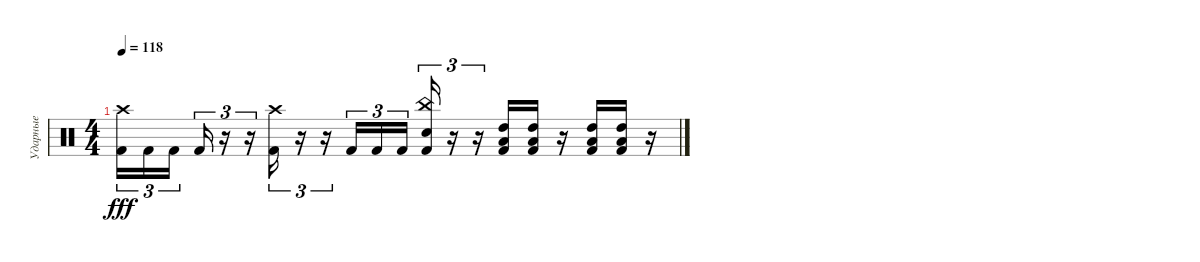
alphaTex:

\track ("Ударные" "Ударные") {instrument percussion}
\staff {score}
\articulation defaults
\ts (4 4)
\tempo 118
\clef neutral
\ks c
("Crash high (hit)" "Kick (hit) 2").16{tu (3 2) dy fff} "Kick (hit) 2".16{tu (3 2)} "Kick (hit) 2".16{tu (3 2) beam splitsecondary} "Kick (hit) 2".16{tu (3 2)} r.16{tu (3 2)} r.16{tu (3 2)} ("Crash high (hit)" "Kick (hit) 2").16{tu (3 2)} r.16{tu (3 2)} r.16{tu (3 2)} "Kick (hit) 2".16{tu (3 2)} "Kick (hit) 2".16{tu (3 2)} "Kick (hit) 2".16{tu (3 2)} ("China (hit)" "Electric Snare (hit)" "Kick (hit) 2").16{tu (3 2)} r.16{tu (3 2)} r.16{tu (3 2)} ("High Tom (hit)" "Low Tom (hit)" "Kick (hit) 2").16 ("High Tom (hit)" "Low Tom (hit)" "Kick (hit) 2").16 r.16 ("High Tom (hit)" "Low Tom (hit)" "Kick (hit) 2").16 ("High Tom (hit)" "Low Tom (hit)" "Kick (hit) 2").16 r.16
